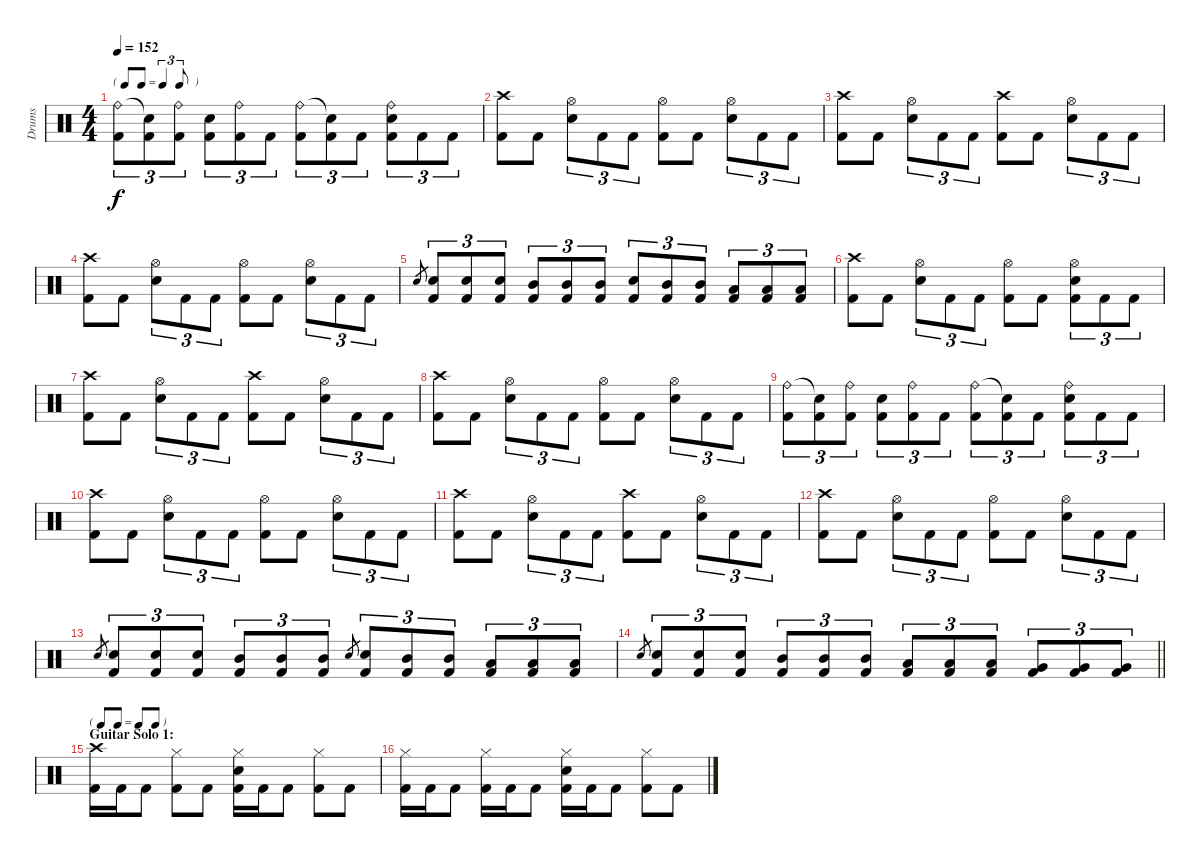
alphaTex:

\track ("Drums" "Drums") {instrument percussion}
\staff {score}
\articulation defaults
\ts (4 4)
\tf triplet8th
\tempo 152
\clef neutral
\ks c
("Ride (bell)" "Kick (hit) 2").8{tu (3 2) dy f} ("Snare (hit)"{t} "Kick (hit) 2").8{tu (3 2)} ("Ride (bell)" "Kick (hit) 2").8{tu (3 2)} ("Snare (hit) 2" "Kick (hit) 2").8{tu (3 2)} ("Ride (bell)" "Kick (hit) 2").8{tu (3 2)} "Kick (hit) 2".8{tu (3 2)} ("Ride (bell)" "Kick (hit) 2").8{tu (3 2)} ("Snare (hit)"{t} "Kick (hit) 2").8{tu (3 2)} "Kick (hit) 2".8{tu (3 2)} ("Ride (bell)" "Snare (hit) 2" "Kick (hit) 2").8{tu (3 2)} "Kick (hit) 2".8{tu (3 2)} "Kick (hit) 2".8{tu (3 2)} |
("Crash high (hit)" "Kick (hit) 2").8 "Kick (hit) 2".8 ("Hi-Hat (open)" "Snare (hit) 2").8{tu (3 2)} "Kick (hit) 2".8{tu (3 2)} "Kick (hit) 2".8{tu (3 2)} ("Hi-Hat (open)" "Kick (hit) 2").8 "Kick (hit) 2".8 ("Hi-Hat (open)" "Snare (hit) 2").8{tu (3 2)} "Kick (hit) 2".8{tu (3 2)} "Kick (hit) 2".8{tu (3 2)} |
("Crash high (hit)" "Kick (hit) 2").8 "Kick (hit) 2".8 ("Hi-Hat (open)" "Snare (hit) 2").8{tu (3 2)} "Kick (hit) 2".8{tu (3 2)} "Kick (hit) 2".8{tu (3 2)} ("Crash high (hit)" "Kick (hit) 2").8 "Kick (hit) 2".8 ("Hi-Hat (open)" "Snare (hit) 2").8{tu (3 2)} "Kick (hit) 2".8{tu (3 2)} "Kick (hit) 2".8{tu (3 2)} |
("Crash high (hit)" "Kick (hit) 2").8 "Kick (hit) 2".8 ("Hi-Hat (open)" "Snare (hit) 2").8{tu (3 2)} "Kick (hit) 2".8{tu (3 2)} "Kick (hit) 2".8{tu (3 2)} ("Hi-Hat (open)" "Kick (hit) 2").8 "Kick (hit) 2".8 ("Hi-Hat (open)" "Snare (hit) 2").8{tu (3 2)} "Kick (hit) 2".8{tu (3 2)} "Kick (hit) 2".8{tu (3 2)} |
"Snare (hit) 2".8{gr} ("Snare (hit) 2" "Kick (hit) 2").8{tu (3 2)} ("Snare (hit) 2" "Kick (hit) 2").8{tu (3 2)} ("Snare (hit) 2" "Kick (hit) 2").8{tu (3 2)} ("Mid Tom (hit)" "Kick (hit) 2").8{tu (3 2)} ("Mid Tom (hit)" "Kick (hit) 2").8{tu (3 2)} ("Mid Tom (hit)" "Kick (hit) 2").8{tu (3 2)} ("Snare (hit) 2" "Kick (hit) 2").8{tu (3 2)} ("Mid Tom (hit)" "Kick (hit) 2").8{tu (3 2)} ("Mid Tom (hit)" "Kick (hit) 2").8{tu (3 2)} ("Low Tom (hit)" "Kick (hit) 2").8{tu (3 2)} ("Low Tom (hit)" "Kick (hit) 2").8{tu (3 2)} ("Low Tom (hit)" "Kick (hit) 2").8{tu (3 2)} |
("Crash high (hit)" "Kick (hit) 2").8 "Kick (hit) 2".8 ("Hi-Hat (open)" "Snare (hit) 2").8{tu (3 2)} "Kick (hit) 2".8{tu (3 2)} "Kick (hit) 2".8{tu (3 2)} ("Hi-Hat (open)" "Kick (hit) 2").8 "Kick (hit) 2".8 ("Hi-Hat (open)" "Snare (hit) 2" "Kick (hit) 2").8{tu (3 2)} "Kick (hit) 2".8{tu (3 2)} "Kick (hit) 2".8{tu (3 2)} |
("Crash high (hit)" "Kick (hit) 2").8 "Kick (hit) 2".8 ("Hi-Hat (open)" "Snare (hit) 2").8{tu (3 2)} "Kick (hit) 2".8{tu (3 2)} "Kick (hit) 2".8{tu (3 2)} ("Crash high (hit)" "Kick (hit) 2").8 "Kick (hit) 2".8 ("Hi-Hat (open)" "Snare (hit) 2").8{tu (3 2)} "Kick (hit) 2".8{tu (3 2)} "Kick (hit) 2".8{tu (3 2)} |
("Crash high (hit)" "Kick (hit) 2").8 "Kick (hit) 2".8 ("Hi-Hat (open)" "Snare (hit) 2").8{tu (3 2)} "Kick (hit) 2".8{tu (3 2)} "Kick (hit) 2".8{tu (3 2)} ("Hi-Hat (open)" "Kick (hit) 2").8 "Kick (hit) 2".8 ("Hi-Hat (open)" "Snare (hit) 2").8{tu (3 2)} "Kick (hit) 2".8{tu (3 2)} "Kick (hit) 2".8{tu (3 2)} |
("Ride (bell)" "Kick (hit) 2").8{tu (3 2)} ("Snare (hit)"{t} "Kick (hit) 2").8{tu (3 2)} ("Ride (bell)" "Kick (hit) 2").8{tu (3 2)} ("Snare (hit) 2" "Kick (hit) 2").8{tu (3 2)} ("Ride (bell)" "Kick (hit) 2").8{tu (3 2)} "Kick (hit) 2".8{tu (3 2)} ("Ride (bell)" "Kick (hit) 2").8{tu (3 2)} ("Snare (hit)"{t} "Kick (hit) 2").8{tu (3 2)} "Kick (hit) 2".8{tu (3 2)} ("Ride (bell)" "Snare (hit) 2" "Kick (hit) 2").8{tu (3 2)} "Kick (hit) 2".8{tu (3 2)} "Kick (hit) 2".8{tu (3 2)} |
("Crash high (hit)" "Kick (hit) 2").8 "Kick (hit) 2".8 ("Hi-Hat (open)" "Snare (hit) 2").8{tu (3 2)} "Kick (hit) 2".8{tu (3 2)} "Kick (hit) 2".8{tu (3 2)} ("Hi-Hat (open)" "Kick (hit) 2").8 "Kick (hit) 2".8 ("Hi-Hat (open)" "Snare (hit) 2").8{tu (3 2)} "Kick (hit) 2".8{tu (3 2)} "Kick (hit) 2".8{tu (3 2)} |
("Crash high (hit)" "Kick (hit) 2").8 "Kick (hit) 2".8 ("Hi-Hat (open)" "Snare (hit) 2").8{tu (3 2)} "Kick (hit) 2".8{tu (3 2)} "Kick (hit) 2".8{tu (3 2)} ("Crash high (hit)" "Kick (hit) 2").8 "Kick (hit) 2".8 ("Hi-Hat (open)" "Snare (hit) 2").8{tu (3 2)} "Kick (hit) 2".8{tu (3 2)} "Kick (hit) 2".8{tu (3 2)} |
("Crash high (hit)" "Kick (hit) 2").8 "Kick (hit) 2".8 ("Hi-Hat (open)" "Snare (hit) 2").8{tu (3 2)} "Kick (hit) 2".8{tu (3 2)} "Kick (hit) 2".8{tu (3 2)} ("Hi-Hat (open)" "Kick (hit) 2").8 "Kick (hit) 2".8 ("Hi-Hat (open)" "Snare (hit) 2").8{tu (3 2)} "Kick (hit) 2".8{tu (3 2)} "Kick (hit) 2".8{tu (3 2)} |
"Snare (hit) 2".8{gr} ("Snare (hit) 2" "Kick (hit) 2").8{tu (3 2)} ("Snare (hit) 2" "Kick (hit) 2").8{tu (3 2)} ("Snare (hit) 2" "Kick (hit) 2").8{tu (3 2)} ("Mid Tom (hit)" "Kick (hit) 2").8{tu (3 2)} ("Mid Tom (hit)" "Kick (hit) 2").8{tu (3 2)} ("Mid Tom (hit)" "Kick (hit) 2").8{tu (3 2)} "Snare (hit) 2".8{gr} ("Snare (hit) 2" "Kick (hit) 2").8{tu (3 2)} ("Mid Tom (hit)" "Kick (hit) 2").8{tu (3 2)} ("Mid Tom (hit)" "Kick (hit) 2").8{tu (3 2)} ("Low Tom (hit)" "Kick (hit) 2").8{tu (3 2)} ("Low Tom (hit)" "Kick (hit) 2").8{tu (3 2)} ("Low Tom (hit)" "Kick (hit) 2").8{tu (3 2)} |
\barLineRight lightlight "Snare (hit) 2".8{gr}
("Snare (hit) 2" "Kick (hit) 2").8{tu (3 2)} ("Snare (hit) 2" "Kick (hit) 2").8{tu (3 2)} ("Snare (hit) 2" "Kick (hit) 2").8{tu (3 2)} ("Mid Tom (hit)" "Kick (hit) 2").8{tu (3 2)} ("Mid Tom (hit)" "Kick (hit) 2").8{tu (3 2)} ("Mid Tom (hit)" "Kick (hit) 2").8{tu (3 2)} ("Low Tom (hit)" "Kick (hit) 2").8{tu (3 2)} ("Low Tom (hit)" "Kick (hit) 2").8{tu (3 2)} ("Low Tom (hit)" "Kick (hit) 2").8{tu (3 2)} ("Very Low Tom (hit)" "Kick (hit) 2").8{tu (3 2)} ("Very Low Tom (hit)" "Kick (hit) 2").8{tu (3 2)} ("Very Low Tom (hit)" "Kick (hit) 2").8{tu (3 2)} |
\tf none
\section ("" "Guitar Solo 1:")
("Crash high (hit)" "Kick (hit) 2").16 "Kick (hit) 2".16 "Kick (hit) 2".8 ("Hi-Hat (closed)" "Kick (hit) 2").8 "Kick (hit) 2".8 ("Hi-Hat (closed)" "Snare (hit) 2" "Kick (hit) 2").16 "Kick (hit) 2".16 "Kick (hit) 2".8 ("Hi-Hat (closed)" "Kick (hit) 2").8 "Kick (hit) 2".8 |
("Hi-Hat (closed)" "Kick (hit) 2").16 "Kick (hit) 2".16 "Kick (hit) 2".8 ("Hi-Hat (closed)" "Kick (hit) 2").16 "Kick (hit) 2".16 "Kick (hit) 2".8 ("Hi-Hat (closed)" "Snare (hit) 2" "Kick (hit) 2").16 "Kick (hit) 2".16 "Kick (hit) 2".8 ("Hi-Hat (closed)" "Kick (hit) 2").8 "Kick (hit) 2".8
